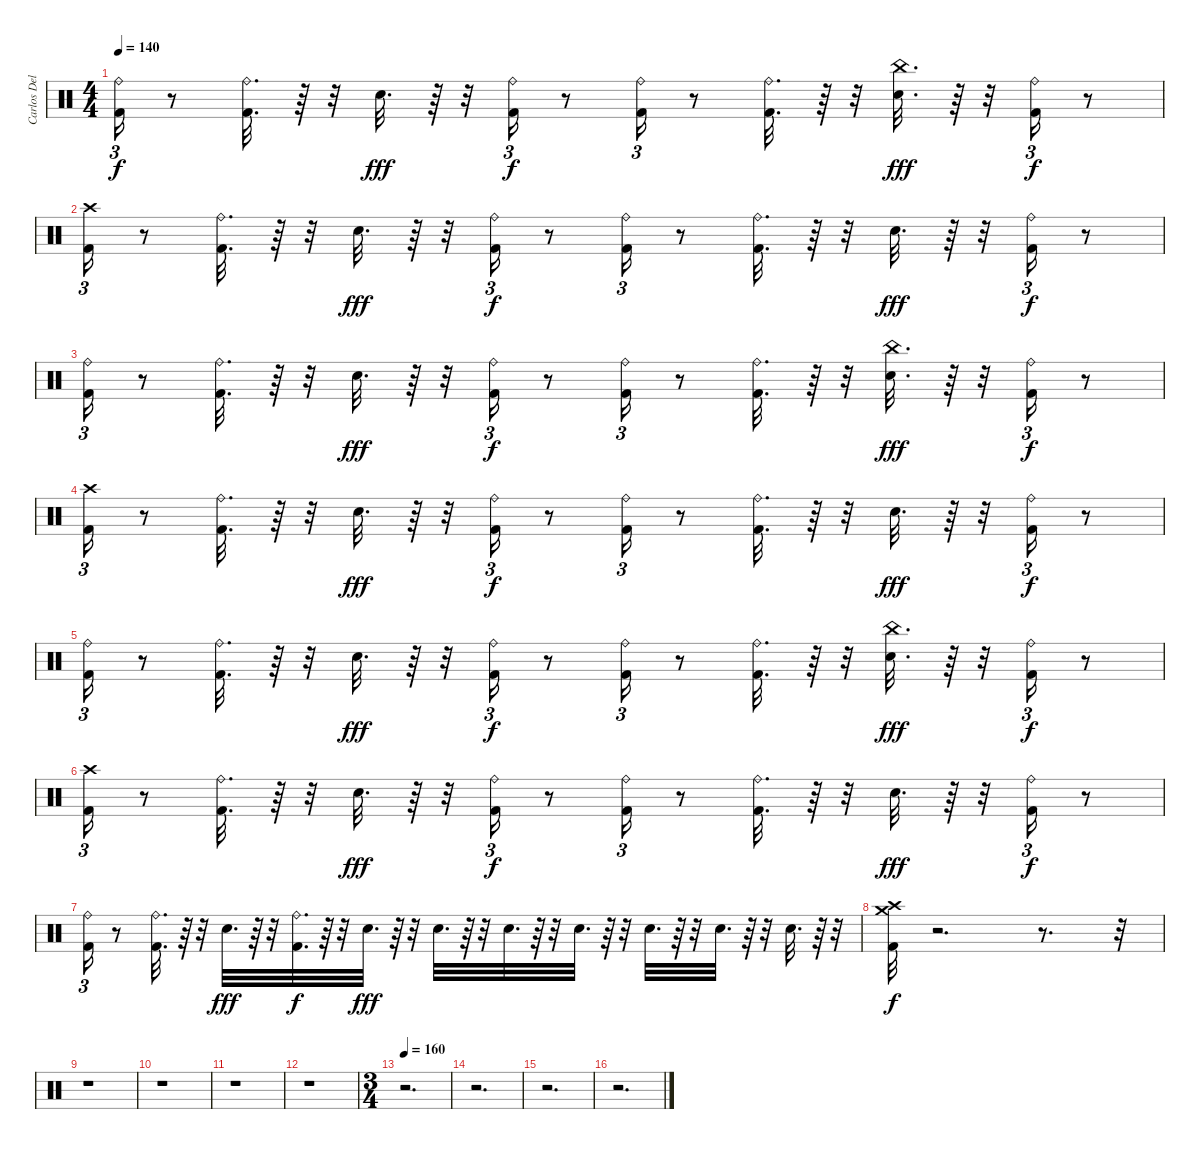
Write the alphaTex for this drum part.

\track ("Carlos Delgado" "Carlos Del") {instrument percussion}
\staff {score}
\articulation defaults
\ts (4 4)
\tempo 140
\clef neutral
\ks c
("Kick (hit) 2" "Ride (bell)").16{tu (3 2) dy f} r.8 ("Ride (bell)" "Kick (hit) 2").32{d} r.64 r.32 "Electric Snare (hit)".32{d dy fff} r.64 r.32 ("Ride (bell)" "Kick (hit) 2").16{tu (3 2) dy f} r.8 ("Kick (hit) 2" "Ride (bell)").16{tu (3 2)} r.8 ("Ride (bell)" "Kick (hit) 2").32{d} r.64 r.32 ("Electric Snare (hit)" "China (hit)").32{d dy fff} r.64 r.32 ("Ride (bell)" "Kick (hit) 2").16{tu (3 2) dy f} r.8 |
("Kick (hit) 2" "Crash high (hit)").16{tu (3 2)} r.8 ("Kick (hit) 2" "Ride (bell)").32{d} r.64 r.32 "Electric Snare (hit)".32{d dy fff} r.64 r.32 ("Ride (bell)" "Kick (hit) 2").16{tu (3 2) dy f} r.8 ("Kick (hit) 2" "Ride (bell)").16{tu (3 2)} r.8 ("Ride (bell)" "Kick (hit) 2").32{d} r.64 r.32 "Electric Snare (hit)".32{d dy fff} r.64 r.32 ("Kick (hit) 2" "Ride (bell)").16{tu (3 2) dy f} r.8 |
("Ride (bell)" "Kick (hit) 2").16{tu (3 2)} r.8 ("Ride (bell)" "Kick (hit) 2").32{d} r.64 r.32 "Electric Snare (hit)".32{d dy fff} r.64 r.32 ("Ride (bell)" "Kick (hit) 2").16{tu (3 2) dy f} r.8 ("Kick (hit) 2" "Ride (bell)").16{tu (3 2)} r.8 ("Ride (bell)" "Kick (hit) 2").32{d} r.64 r.32 ("China (hit)" "Electric Snare (hit)").32{d dy fff} r.64 r.32 ("Kick (hit) 2" "Ride (bell)").16{tu (3 2) dy f} r.8 |
("Crash high (hit)" "Kick (hit) 2").16{tu (3 2)} r.8 ("Kick (hit) 2" "Ride (bell)").32{d} r.64 r.32 "Electric Snare (hit)".32{d dy fff} r.64 r.32 ("Kick (hit) 2" "Ride (bell)").16{tu (3 2) dy f} r.8 ("Kick (hit) 2" "Ride (bell)").16{tu (3 2)} r.8 ("Ride (bell)" "Kick (hit) 2").32{d} r.64 r.32 "Electric Snare (hit)".32{d dy fff} r.64 r.32 ("Kick (hit) 2" "Ride (bell)").16{tu (3 2) dy f} r.8 |
("Ride (bell)" "Kick (hit) 2").16{tu (3 2)} r.8 ("Kick (hit) 2" "Ride (bell)").32{d} r.64 r.32 "Electric Snare (hit)".32{d dy fff} r.64 r.32 ("Ride (bell)" "Kick (hit) 2").16{tu (3 2) dy f} r.8 ("Ride (bell)" "Kick (hit) 2").16{tu (3 2)} r.8 ("Kick (hit) 2" "Ride (bell)").32{d} r.64 r.32 ("Electric Snare (hit)" "China (hit)").32{d dy fff} r.64 r.32 ("Ride (bell)" "Kick (hit) 2").16{tu (3 2) dy f} r.8 |
("Kick (hit) 2" "Crash high (hit)").16{tu (3 2)} r.8 ("Ride (bell)" "Kick (hit) 2").32{d} r.64 r.32 "Electric Snare (hit)".32{d dy fff} r.64 r.32 ("Ride (bell)" "Kick (hit) 2").16{tu (3 2) dy f} r.8 ("Kick (hit) 2" "Ride (bell)").16{tu (3 2)} r.8 ("Kick (hit) 2" "Ride (bell)").32{d} r.64 r.32 "Electric Snare (hit)".32{d dy fff} r.64 r.32 ("Ride (bell)" "Kick (hit) 2").16{tu (3 2) dy f} r.8 |
("Kick (hit) 2" "Ride (bell)").16{tu (3 2)} r.8 ("Ride (bell)" "Kick (hit) 2").32{d} r.64 r.32 "Electric Snare (hit)".32{d dy fff} r.64 r.32 ("Kick (hit) 2" "Ride (bell)").32{d dy f} r.64 r.32 "Electric Snare (hit)".32{d dy fff} r.64 r.32 "Electric Snare (hit)".32{d} r.64 r.32 "Electric Snare (hit)".32{d} r.64 r.32 "Electric Snare (hit)".32{d} r.64 r.32 "Electric Snare (hit)".32{d} r.64 r.32 "Electric Snare (hit)".32{d} r.64 r.32 "Electric Snare (hit)".32{d} r.64 r.32 |
("Kick (hit) 2" "Crash high (hit)" "Crash medium (hit)").32{dy f} r.2{d} r.8{d} r.32 |
r.1 |
r.1 |
r.1 |
r.1 |
\ts (3 4)
\tempo 160
r.2{d} |
r.2{d} |
r.2{d} |
r.2{d}
